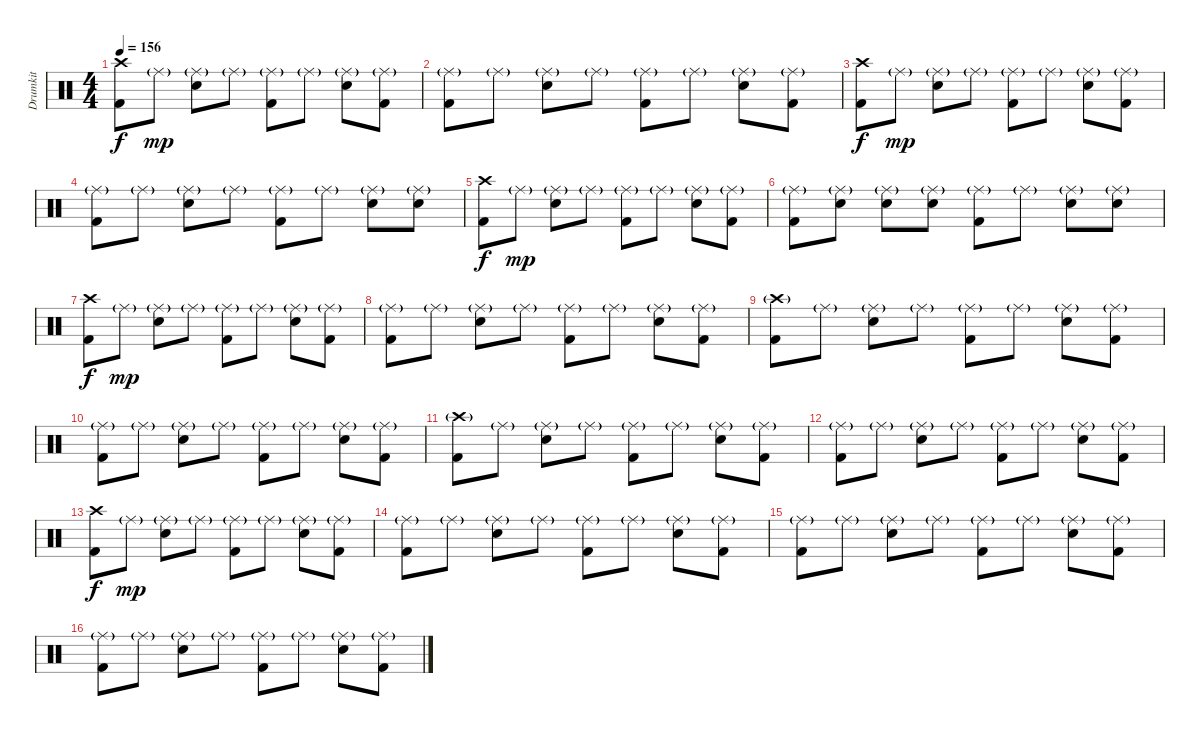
\track ("Drumkit" "Drumkit") {instrument percussion}
\staff {score}
\articulation defaults
\ts (4 4)
\tempo 156
\clef neutral
\ks c
("Crash high (hit)" "Kick (hit) 2").8{dy f} "Ride (middle)"{g}.8{dy mp} ("Ride (middle)"{g} "Electric Snare (hit)").8 "Ride (middle)"{g}.8 ("Ride (middle)"{g} "Kick (hit) 2").8 "Ride (middle)"{g}.8 ("Ride (middle)"{g} "Electric Snare (hit)").8 ("Ride (middle)"{g} "Kick (hit) 2").8 |
("Ride (middle)"{g} "Kick (hit) 2").8 "Ride (middle)"{g}.8 ("Ride (middle)"{g} "Electric Snare (hit)").8 "Ride (middle)"{g}.8 ("Ride (middle)"{g} "Kick (hit) 2").8 "Ride (middle)"{g}.8 ("Ride (middle)"{g} "Electric Snare (hit)").8 ("Ride (middle)"{g} "Kick (hit) 2").8 |
("Crash high (hit)" "Kick (hit) 2").8{dy f} "Ride (middle)"{g}.8{dy mp} ("Ride (middle)"{g} "Electric Snare (hit)").8 "Ride (middle)"{g}.8 ("Ride (middle)"{g} "Kick (hit) 2").8 "Ride (middle)"{g}.8 ("Ride (middle)"{g} "Electric Snare (hit)").8 ("Ride (middle)"{g} "Kick (hit) 2").8 |
("Ride (middle)"{g} "Kick (hit) 2").8 "Ride (middle)"{g}.8 ("Ride (middle)"{g} "Electric Snare (hit)").8 "Ride (middle)"{g}.8 ("Ride (middle)"{g} "Kick (hit) 2").8 "Ride (middle)"{g}.8 ("Ride (middle)"{g} "Electric Snare (hit)").8 ("Ride (middle)"{g} "Electric Snare (hit)").8 |
("Crash high (hit)" "Kick (hit) 2").8{dy f} "Ride (middle)"{g}.8{dy mp} ("Ride (middle)"{g} "Electric Snare (hit)").8 "Ride (middle)"{g}.8 ("Ride (middle)"{g} "Kick (hit) 2").8 "Ride (middle)"{g}.8 ("Ride (middle)"{g} "Electric Snare (hit)").8 ("Ride (middle)"{g} "Kick (hit) 2").8 |
("Ride (middle)"{g} "Kick (hit) 2").8 ("Ride (middle)"{g} "Electric Snare (hit)").8 ("Ride (middle)"{g} "Electric Snare (hit)").8 ("Ride (middle)"{g} "Electric Snare (hit)").8 ("Ride (middle)"{g} "Kick (hit) 2").8 "Ride (middle)"{g}.8 ("Ride (middle)"{g} "Electric Snare (hit)").8 ("Ride (middle)"{g} "Electric Snare (hit)").8 |
("Crash high (hit)" "Kick (hit) 2").8{dy f} "Ride (middle)"{g}.8{dy mp} ("Ride (middle)"{g} "Electric Snare (hit)").8 "Ride (middle)"{g}.8 ("Ride (middle)"{g} "Kick (hit) 2").8 "Ride (middle)"{g}.8 ("Ride (middle)"{g} "Electric Snare (hit)").8 ("Ride (middle)"{g} "Kick (hit) 2").8 |
("Ride (middle)"{g} "Kick (hit) 2").8 "Ride (middle)"{g}.8 ("Ride (middle)"{g} "Electric Snare (hit)").8 "Ride (middle)"{g}.8 ("Ride (middle)"{g} "Kick (hit) 2").8 "Ride (middle)"{g}.8 ("Ride (middle)"{g} "Electric Snare (hit)").8 ("Ride (middle)"{g} "Kick (hit) 2").8 |
("Crash high (hit)"{g} "Kick (hit) 2").8 "Ride (middle)"{g}.8 ("Ride (middle)"{g} "Electric Snare (hit)").8 "Ride (middle)"{g}.8 ("Ride (middle)"{g} "Kick (hit) 2").8 "Ride (middle)"{g}.8 ("Ride (middle)"{g} "Electric Snare (hit)").8 ("Ride (middle)"{g} "Kick (hit) 2").8 |
("Ride (middle)"{g} "Kick (hit) 2").8 "Ride (middle)"{g}.8 ("Ride (middle)"{g} "Electric Snare (hit)").8 "Ride (middle)"{g}.8 ("Ride (middle)"{g} "Kick (hit) 2").8 "Ride (middle)"{g}.8 ("Ride (middle)"{g} "Electric Snare (hit)").8 ("Ride (middle)"{g} "Kick (hit) 2").8 |
("Crash high (hit)"{g} "Kick (hit) 2").8 "Ride (middle)"{g}.8 ("Ride (middle)"{g} "Electric Snare (hit)").8 "Ride (middle)"{g}.8 ("Ride (middle)"{g} "Kick (hit) 2").8 "Ride (middle)"{g}.8 ("Ride (middle)"{g} "Electric Snare (hit)").8 ("Ride (middle)"{g} "Kick (hit) 2").8 |
("Ride (middle)"{g} "Kick (hit) 2").8 "Ride (middle)"{g}.8 ("Ride (middle)"{g} "Electric Snare (hit)").8 "Ride (middle)"{g}.8 ("Ride (middle)"{g} "Kick (hit) 2").8 "Ride (middle)"{g}.8 ("Ride (middle)"{g} "Electric Snare (hit)").8 ("Ride (middle)"{g} "Kick (hit) 2").8 |
("Crash high (hit)" "Kick (hit) 2").8{dy f} "Ride (middle)"{g}.8{dy mp} ("Ride (middle)"{g} "Electric Snare (hit)").8 "Ride (middle)"{g}.8 ("Ride (middle)"{g} "Kick (hit) 2").8 "Ride (middle)"{g}.8 ("Ride (middle)"{g} "Electric Snare (hit)").8 ("Ride (middle)"{g} "Kick (hit) 2").8 |
("Ride (middle)"{g} "Kick (hit) 2").8 "Ride (middle)"{g}.8 ("Ride (middle)"{g} "Electric Snare (hit)").8 "Ride (middle)"{g}.8 ("Ride (middle)"{g} "Kick (hit) 2").8 "Ride (middle)"{g}.8 ("Ride (middle)"{g} "Electric Snare (hit)").8 ("Ride (middle)"{g} "Kick (hit) 2").8 |
("Ride (middle)"{g} "Kick (hit) 2").8 "Ride (middle)"{g}.8 ("Ride (middle)"{g} "Electric Snare (hit)").8 "Ride (middle)"{g}.8 ("Ride (middle)"{g} "Kick (hit) 2").8 "Ride (middle)"{g}.8 ("Ride (middle)"{g} "Electric Snare (hit)").8 ("Ride (middle)"{g} "Kick (hit) 2").8 |
("Ride (middle)"{g} "Kick (hit) 2").8 "Ride (middle)"{g}.8 ("Ride (middle)"{g} "Electric Snare (hit)").8 "Ride (middle)"{g}.8 ("Ride (middle)"{g} "Kick (hit) 2").8 "Ride (middle)"{g}.8 ("Ride (middle)"{g} "Electric Snare (hit)").8 ("Ride (middle)"{g} "Kick (hit) 2").8
